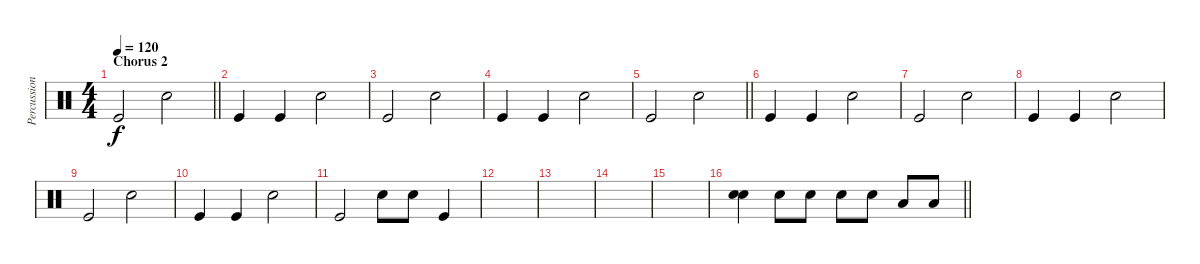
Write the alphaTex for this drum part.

\track ("Percussion" "Percussion") {instrument percussion}
\staff {score}
\articulation defaults
\ts (4 4)
\section ("" "Chorus 2")
\tempo 120
\clef neutral
\barLineRight lightlight
\ks c "Kick (hit)".2{dy f} "Snare (hit) 2".2
|
"Kick (hit)".4 "Kick (hit)".4 "Snare (hit) 2".2 |
"Kick (hit)".2 "Snare (hit) 2".2 |
"Kick (hit)".4 "Kick (hit)".4 "Snare (hit) 2".2 |
\barLineRight lightlight "Kick (hit)".2 "Snare (hit) 2".2
|
"Kick (hit)".4 "Kick (hit)".4 "Snare (hit) 2".2 |
"Kick (hit)".2 "Snare (hit) 2".2 |
"Kick (hit)".4 "Kick (hit)".4 "Snare (hit) 2".2 |
"Kick (hit)".2 "Snare (hit) 2".2 |
"Kick (hit)".4 "Kick (hit)".4 "Snare (hit) 2".2 |
"Kick (hit)".2 "Snare (hit) 2".8 "Snare (hit) 2".8 "Kick (hit)".4 |
|
|
|
|
\barLineRight lightlight
("Snare (hit) 2" "Snare (hit) 2").4 "Snare (hit) 2".8 "Snare (hit) 2".8 "Snare (hit) 2".8 "Snare (hit) 2".8 "Low Tom (hit)".8 "Low Tom (hit)".8
